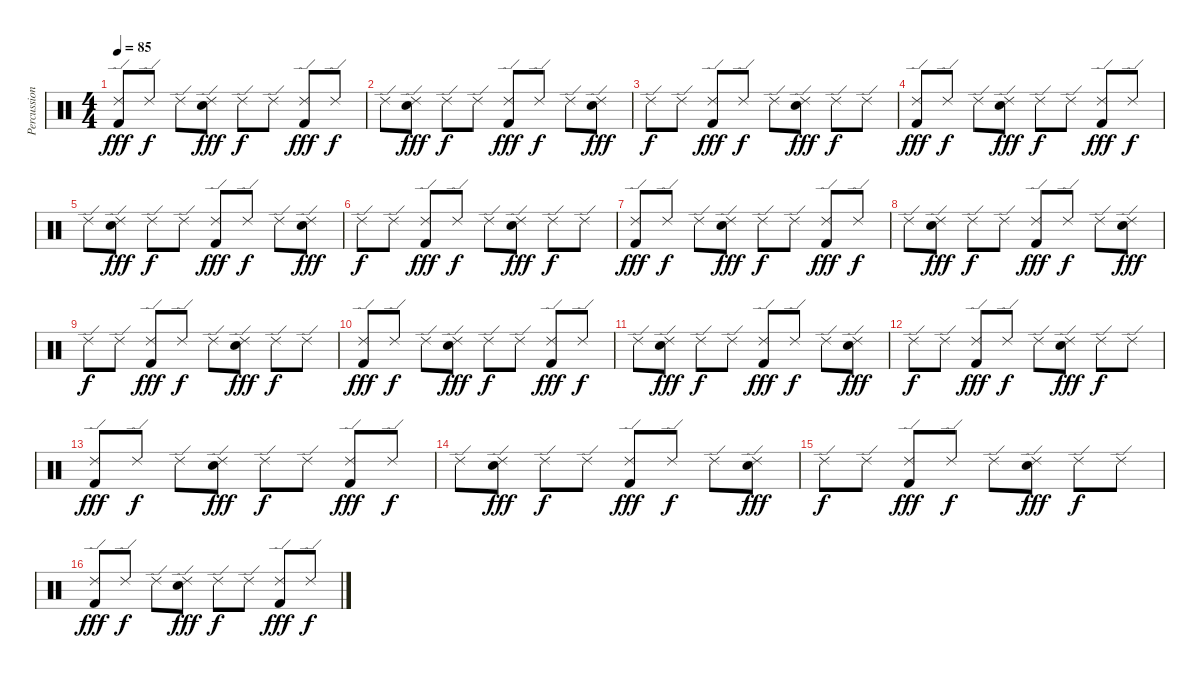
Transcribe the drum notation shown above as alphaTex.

\track ("Percussion" "Percussion") {instrument percussion}
\staff {score}
\articulation defaults
\ts (4 4)
\tempo 85
\clef neutral
\ks c
("Ride (edge) 2" "Kick (hit) 2").8{dy fff} "Ride (edge) 2".8{dy f} "Ride (edge) 2".8 ("Ride (edge) 2" "Electric Snare (hit)").8{dy fff} "Ride (edge) 2".8{dy f} "Ride (edge) 2".8 ("Ride (edge) 2" "Kick (hit) 2").8{dy fff} "Ride (edge) 2".8{dy f} |
"Ride (edge) 2".8 ("Ride (edge) 2" "Electric Snare (hit)").8{dy fff} "Ride (edge) 2".8{dy f} "Ride (edge) 2".8 ("Ride (edge) 2" "Kick (hit) 2").8{dy fff} "Ride (edge) 2".8{dy f} "Ride (edge) 2".8 ("Ride (edge) 2" "Electric Snare (hit)").8{dy fff} |
"Ride (edge) 2".8{dy f} "Ride (edge) 2".8 ("Ride (edge) 2" "Kick (hit) 2").8{dy fff} "Ride (edge) 2".8{dy f} "Ride (edge) 2".8 ("Ride (edge) 2" "Electric Snare (hit)").8{dy fff} "Ride (edge) 2".8{dy f} "Ride (edge) 2".8 |
("Ride (edge) 2" "Kick (hit) 2").8{dy fff} "Ride (edge) 2".8{dy f} "Ride (edge) 2".8 ("Ride (edge) 2" "Electric Snare (hit)").8{dy fff} "Ride (edge) 2".8{dy f} "Ride (edge) 2".8 ("Ride (edge) 2" "Kick (hit) 2").8{dy fff} "Ride (edge) 2".8{dy f} |
"Ride (edge) 2".8 ("Ride (edge) 2" "Electric Snare (hit)").8{dy fff} "Ride (edge) 2".8{dy f} "Ride (edge) 2".8 ("Ride (edge) 2" "Kick (hit) 2").8{dy fff} "Ride (edge) 2".8{dy f} "Ride (edge) 2".8 ("Ride (edge) 2" "Electric Snare (hit)").8{dy fff} |
"Ride (edge) 2".8{dy f} "Ride (edge) 2".8 ("Ride (edge) 2" "Kick (hit) 2").8{dy fff} "Ride (edge) 2".8{dy f} "Ride (edge) 2".8 ("Ride (edge) 2" "Electric Snare (hit)").8{dy fff} "Ride (edge) 2".8{dy f} "Ride (edge) 2".8 |
("Ride (edge) 2" "Kick (hit) 2").8{dy fff} "Ride (edge) 2".8{dy f} "Ride (edge) 2".8 ("Ride (edge) 2" "Electric Snare (hit)").8{dy fff} "Ride (edge) 2".8{dy f} "Ride (edge) 2".8 ("Ride (edge) 2" "Kick (hit) 2").8{dy fff} "Ride (edge) 2".8{dy f} |
"Ride (edge) 2".8 ("Ride (edge) 2" "Electric Snare (hit)").8{dy fff} "Ride (edge) 2".8{dy f} "Ride (edge) 2".8 ("Ride (edge) 2" "Kick (hit) 2").8{dy fff} "Ride (edge) 2".8{dy f} "Ride (edge) 2".8 ("Ride (edge) 2" "Electric Snare (hit)").8{dy fff} |
"Ride (edge) 2".8{dy f} "Ride (edge) 2".8 ("Ride (edge) 2" "Kick (hit) 2").8{dy fff} "Ride (edge) 2".8{dy f} "Ride (edge) 2".8 ("Ride (edge) 2" "Electric Snare (hit)").8{dy fff} "Ride (edge) 2".8{dy f} "Ride (edge) 2".8 |
("Ride (edge) 2" "Kick (hit) 2").8{dy fff} "Ride (edge) 2".8{dy f} "Ride (edge) 2".8 ("Ride (edge) 2" "Electric Snare (hit)").8{dy fff} "Ride (edge) 2".8{dy f} "Ride (edge) 2".8 ("Ride (edge) 2" "Kick (hit) 2").8{dy fff} "Ride (edge) 2".8{dy f} |
"Ride (edge) 2".8 ("Ride (edge) 2" "Electric Snare (hit)").8{dy fff} "Ride (edge) 2".8{dy f} "Ride (edge) 2".8 ("Ride (edge) 2" "Kick (hit) 2").8{dy fff} "Ride (edge) 2".8{dy f} "Ride (edge) 2".8 ("Ride (edge) 2" "Electric Snare (hit)").8{dy fff} |
"Ride (edge) 2".8{dy f} "Ride (edge) 2".8 ("Ride (edge) 2" "Kick (hit) 2").8{dy fff} "Ride (edge) 2".8{dy f} "Ride (edge) 2".8 ("Ride (edge) 2" "Electric Snare (hit)").8{dy fff} "Ride (edge) 2".8{dy f} "Ride (edge) 2".8 |
("Ride (edge) 2" "Kick (hit) 2").8{dy fff} "Ride (edge) 2".8{dy f} "Ride (edge) 2".8 ("Ride (edge) 2" "Electric Snare (hit)").8{dy fff} "Ride (edge) 2".8{dy f} "Ride (edge) 2".8 ("Ride (edge) 2" "Kick (hit) 2").8{dy fff} "Ride (edge) 2".8{dy f} |
"Ride (edge) 2".8 ("Ride (edge) 2" "Electric Snare (hit)").8{dy fff} "Ride (edge) 2".8{dy f} "Ride (edge) 2".8 ("Ride (edge) 2" "Kick (hit) 2").8{dy fff} "Ride (edge) 2".8{dy f} "Ride (edge) 2".8 ("Ride (edge) 2" "Electric Snare (hit)").8{dy fff} |
"Ride (edge) 2".8{dy f} "Ride (edge) 2".8 ("Ride (edge) 2" "Kick (hit) 2").8{dy fff} "Ride (edge) 2".8{dy f} "Ride (edge) 2".8 ("Ride (edge) 2" "Electric Snare (hit)").8{dy fff} "Ride (edge) 2".8{dy f} "Ride (edge) 2".8 |
("Ride (edge) 2" "Kick (hit) 2").8{dy fff} "Ride (edge) 2".8{dy f} "Ride (edge) 2".8 ("Ride (edge) 2" "Electric Snare (hit)").8{dy fff} "Ride (edge) 2".8{dy f} "Ride (edge) 2".8 ("Ride (edge) 2" "Kick (hit) 2").8{dy fff} "Ride (edge) 2".8{dy f}
